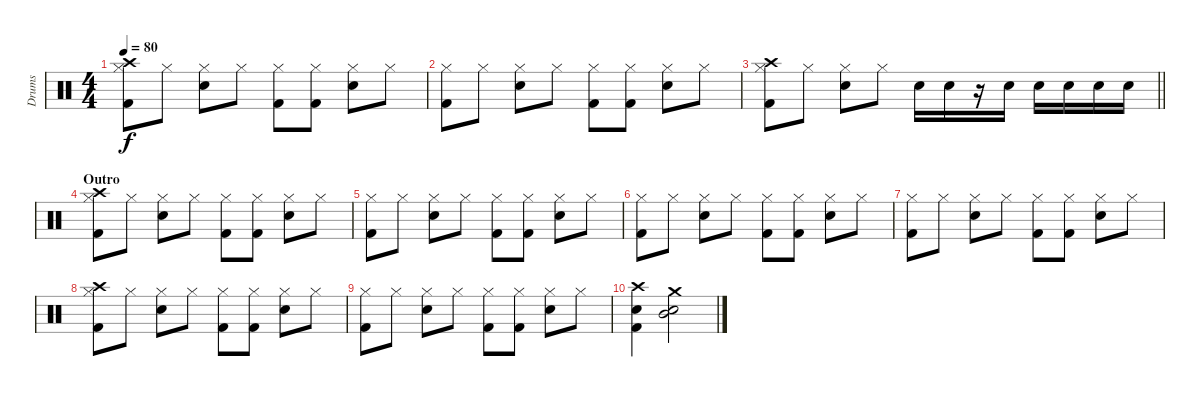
\track ("Drums" "Drums") {instrument percussion}
\staff {score}
\articulation defaults
\ts (4 4)
\tempo 80
\clef neutral
\ks c
("Hi-Hat (closed)" "Crash high (hit)" "Kick (hit) 2").8{dy f} "Hi-Hat (closed)".8 ("Hi-Hat (closed)" "Snare (hit) 2").8 "Hi-Hat (closed)".8 ("Hi-Hat (closed)" "Kick (hit) 2").8 ("Hi-Hat (closed)" "Kick (hit) 2").8 ("Hi-Hat (closed)" "Snare (hit) 2").8 "Hi-Hat (closed)".8 |
("Hi-Hat (closed)" "Kick (hit) 2").8 "Hi-Hat (closed)".8 ("Hi-Hat (closed)" "Snare (hit) 2").8 "Hi-Hat (closed)".8 ("Hi-Hat (closed)" "Kick (hit) 2").8 ("Hi-Hat (closed)" "Kick (hit) 2").8 ("Hi-Hat (closed)" "Snare (hit) 2").8 "Hi-Hat (closed)".8 |
\barLineRight lightlight
("Hi-Hat (closed)" "Crash high (hit)" "Kick (hit) 2").8 "Hi-Hat (closed)".8 ("Hi-Hat (closed)" "Snare (hit) 2").8 "Hi-Hat (closed)".8 "Snare (hit) 2".16 "Snare (hit) 2".16 r.16 "Snare (hit) 2".16 "Snare (hit) 2".16 "Snare (hit) 2".16 "Snare (hit) 2".16 "Snare (hit) 2".16 |
\section ("" "Outro")
("Hi-Hat (closed)" "Crash high (hit)" "Kick (hit) 2").8 "Hi-Hat (closed)".8 ("Hi-Hat (closed)" "Snare (hit) 2").8 "Hi-Hat (closed)".8 ("Hi-Hat (closed)" "Kick (hit) 2").8 ("Hi-Hat (closed)" "Kick (hit) 2").8 ("Hi-Hat (closed)" "Snare (hit) 2").8 "Hi-Hat (closed)".8 |
("Hi-Hat (closed)" "Kick (hit) 2").8 "Hi-Hat (closed)".8 ("Hi-Hat (closed)" "Snare (hit) 2").8 "Hi-Hat (closed)".8 ("Hi-Hat (closed)" "Kick (hit) 2").8 ("Hi-Hat (closed)" "Kick (hit) 2").8 ("Hi-Hat (closed)" "Snare (hit) 2").8 "Hi-Hat (closed)".8 |
("Hi-Hat (closed)" "Kick (hit) 2").8 "Hi-Hat (closed)".8 ("Hi-Hat (closed)" "Snare (hit) 2").8 "Hi-Hat (closed)".8 ("Hi-Hat (closed)" "Kick (hit) 2").8 ("Hi-Hat (closed)" "Kick (hit) 2").8 ("Hi-Hat (closed)" "Snare (hit) 2").8 "Hi-Hat (closed)".8 |
("Hi-Hat (closed)" "Kick (hit) 2").8 "Hi-Hat (closed)".8 ("Hi-Hat (closed)" "Snare (hit) 2").8 "Hi-Hat (closed)".8 ("Hi-Hat (closed)" "Kick (hit) 2").8 ("Hi-Hat (closed)" "Kick (hit) 2").8 ("Hi-Hat (closed)" "Snare (hit) 2").8 "Hi-Hat (closed)".8 |
("Hi-Hat (closed)" "Crash high (hit)" "Kick (hit) 2").8 "Hi-Hat (closed)".8 ("Hi-Hat (closed)" "Snare (hit) 2").8 "Hi-Hat (closed)".8 ("Hi-Hat (closed)" "Kick (hit) 2").8 ("Hi-Hat (closed)" "Kick (hit) 2").8 ("Hi-Hat (closed)" "Snare (hit) 2").8 "Hi-Hat (closed)".8 |
("Hi-Hat (closed)" "Kick (hit) 2").8 "Hi-Hat (closed)".8 ("Hi-Hat (closed)" "Snare (hit) 2").8 "Hi-Hat (closed)".8 ("Hi-Hat (closed)" "Kick (hit) 2").8 ("Hi-Hat (closed)" "Kick (hit) 2").8 ("Hi-Hat (closed)" "Snare (hit) 2").8 "Hi-Hat (closed)".8 |
("Crash high (hit)" "Kick (hit) 2" "Snare (hit) 2").4 ("Crash medium (hit)" "Snare (hit) 2" "Mid Tom (hit)").2
